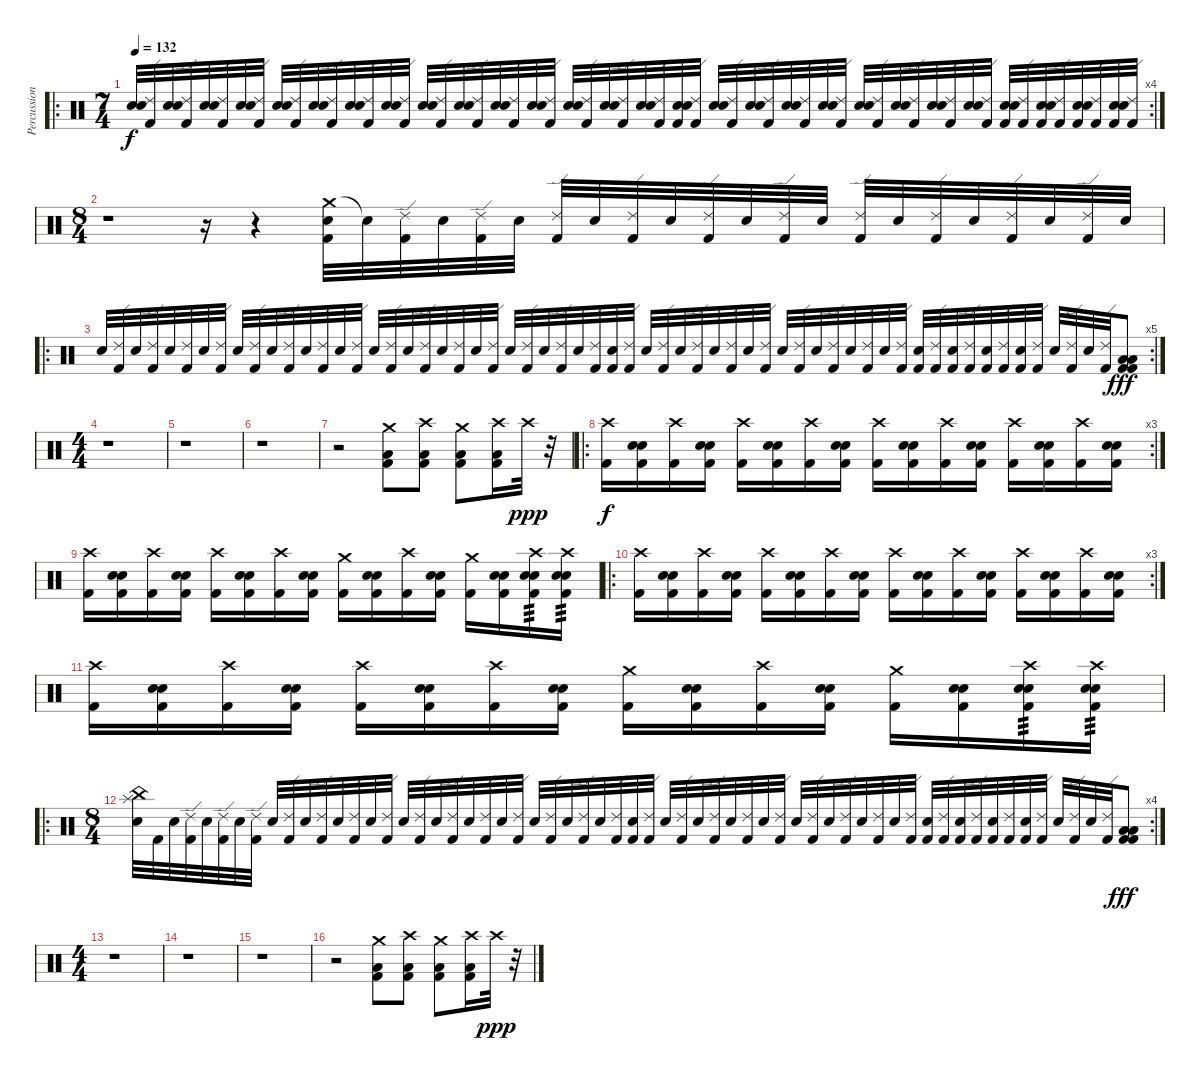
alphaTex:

\track ("Percussion" "Percussion") {instrument percussion}
\staff {score}
\articulation defaults
\ro
\rc 4
\ts (7 4)
\tempo 132
\clef neutral
\ks c
("Electric Snare (hit)" "Snare (hit) 2").32{dy f} ("Ride (edge) 2" "Kick (hit) 2").32 ("Electric Snare (hit)" "Snare (hit) 2").32 ("Ride (edge) 2" "Kick (hit) 2").32 ("Electric Snare (hit)" "Snare (hit) 2").32 ("Ride (edge) 2" "Kick (hit) 2").32 ("Electric Snare (hit)" "Snare (hit) 2").32 ("Ride (edge) 2" "Kick (hit) 2").32 ("Electric Snare (hit)" "Snare (hit) 2").32 ("Ride (edge) 2" "Kick (hit) 2").32 ("Electric Snare (hit)" "Snare (hit) 2").32 ("Ride (edge) 2" "Kick (hit) 2").32 ("Electric Snare (hit)" "Snare (hit) 2").32 ("Ride (edge) 2" "Kick (hit) 2").32 ("Electric Snare (hit)" "Snare (hit) 2").32 ("Ride (edge) 2" "Kick (hit) 2").32 ("Electric Snare (hit)" "Snare (hit) 2").32 ("Ride (edge) 2" "Kick (hit) 2").32 ("Electric Snare (hit)" "Snare (hit) 2").32 ("Ride (edge) 2" "Kick (hit) 2").32 ("Electric Snare (hit)" "Snare (hit) 2").32 ("Ride (edge) 2" "Kick (hit) 2").32 ("Electric Snare (hit)" "Snare (hit) 2").32 ("Ride (edge) 2" "Kick (hit) 2").32 ("Electric Snare (hit)" "Snare (hit) 2").32 ("Ride (edge) 2" "Kick (hit) 2").32 ("Electric Snare (hit)" "Snare (hit) 2").32 ("Ride (edge) 2" "Kick (hit) 2").32 ("Electric Snare (hit)" "Snare (hit) 2").32 ("Ride (edge) 2" "Kick (hit) 2").32 ("Electric Snare (hit)" "Snare (hit) 2" "Kick (hit) 2").32 ("Ride (edge) 2" "Kick (hit) 2").32 ("Electric Snare (hit)" "Snare (hit) 2").32 ("Ride (edge) 2" "Kick (hit) 2").32 ("Electric Snare (hit)" "Snare (hit) 2").32 ("Ride (edge) 2" "Kick (hit) 2").32 ("Electric Snare (hit)" "Snare (hit) 2").32 ("Ride (edge) 2" "Kick (hit) 2").32 ("Electric Snare (hit)" "Snare (hit) 2").32 ("Ride (edge) 2" "Kick (hit) 2").32 ("Electric Snare (hit)" "Snare (hit) 2").32 ("Ride (edge) 2" "Kick (hit) 2").32 ("Electric Snare (hit)" "Snare (hit) 2").32 ("Ride (edge) 2" "Kick (hit) 2").32 ("Electric Snare (hit)" "Snare (hit) 2").32 ("Ride (edge) 2" "Kick (hit) 2").32 ("Electric Snare (hit)" "Snare (hit) 2").32 ("Ride (edge) 2" "Kick (hit) 2").32 ("Electric Snare (hit)" "Snare (hit) 2" "Kick (hit) 2").32 ("Ride (edge) 2" "Kick (hit) 2").32 ("Electric Snare (hit)" "Snare (hit) 2" "Kick (hit) 2").32 ("Ride (edge) 2" "Kick (hit) 2").32 ("Electric Snare (hit)" "Snare (hit) 2" "Kick (hit) 2").32 ("Ride (edge) 2" "Kick (hit) 2").32 ("Electric Snare (hit)" "Snare (hit) 2" "Kick (hit) 2").32 ("Ride (edge) 2" "Kick (hit) 2").32 |
\ts (8 4)
r.1 r.16 r.4 ("Crash medium (hit)" "Electric Snare (hit)" "Kick (hit) 2").32 "Snare (hit)"{t}.32 ("Ride (edge) 2" "Kick (hit) 2").32 "Electric Snare (hit)".32 ("Ride (edge) 2" "Kick (hit) 2").32 "Electric Snare (hit)".32 ("Ride (edge) 2" "Kick (hit) 2").32 "Electric Snare (hit)".32 ("Ride (edge) 2" "Kick (hit) 2").32 "Electric Snare (hit)".32 ("Ride (edge) 2" "Kick (hit) 2").32 "Electric Snare (hit)".32 ("Ride (edge) 2" "Kick (hit) 2").32 "Electric Snare (hit)".32 ("Ride (edge) 2" "Kick (hit) 2").32 "Electric Snare (hit)".32 ("Ride (edge) 2" "Kick (hit) 2").32 "Electric Snare (hit)".32 ("Ride (edge) 2" "Kick (hit) 2").32 "Electric Snare (hit)".32 ("Ride (edge) 2" "Kick (hit) 2").32 "Electric Snare (hit)".32 |
\ro
\rc 5 "Snare (hit) 2".32
("Ride (edge) 2" "Kick (hit) 2").32 "Snare (hit) 2".32 ("Ride (edge) 2" "Kick (hit) 2").32 "Snare (hit) 2".32 ("Ride (edge) 2" "Kick (hit) 2").32 "Snare (hit) 2".32 ("Ride (edge) 2" "Kick (hit) 2").32 "Snare (hit) 2".32 ("Ride (edge) 2" "Kick (hit) 2").32 "Snare (hit) 2".32 ("Ride (edge) 2" "Kick (hit) 2").32 "Snare (hit) 2".32 ("Ride (edge) 2" "Kick (hit) 2").32 "Snare (hit) 2".32 ("Ride (edge) 2" "Kick (hit) 2").32 "Snare (hit) 2".32 ("Ride (edge) 2" "Kick (hit) 2").32 "Snare (hit) 2".32 ("Ride (edge) 2" "Kick (hit) 2").32 "Snare (hit) 2".32 ("Ride (edge) 2" "Kick (hit) 2").32 "Snare (hit) 2".32 ("Ride (edge) 2" "Kick (hit) 2").32 "Snare (hit) 2".32 ("Ride (edge) 2" "Kick (hit) 2").32 "Snare (hit) 2".32 ("Ride (edge) 2" "Kick (hit) 2").32 "Snare (hit) 2".32 ("Ride (edge) 2" "Kick (hit) 2").32 ("Snare (hit) 2" "Kick (hit) 2").32 ("Ride (edge) 2" "Kick (hit) 2").32 "Snare (hit) 2".32 ("Ride (edge) 2" "Kick (hit) 2").32 "Snare (hit) 2".32 ("Ride (edge) 2" "Kick (hit) 2").32 "Snare (hit) 2".32 ("Ride (edge) 2" "Kick (hit) 2").32 "Snare (hit) 2".32 ("Ride (edge) 2" "Kick (hit) 2").32 "Snare (hit) 2".32 ("Ride (edge) 2" "Kick (hit) 2").32 "Snare (hit) 2".32 ("Ride (edge) 2" "Kick (hit) 2").32 "Snare (hit) 2".32 ("Ride (edge) 2" "Kick (hit) 2").32 "Snare (hit) 2".32 ("Ride (edge) 2" "Kick (hit) 2").32 ("Snare (hit) 2" "Kick (hit) 2").32 ("Ride (edge) 2" "Kick (hit) 2").32 ("Snare (hit) 2" "Kick (hit) 2").32 ("Ride (edge) 2" "Kick (hit) 2").32 ("Snare (hit) 2" "Kick (hit) 2").32 ("Ride (edge) 2" "Kick (hit) 2").32 ("Snare (hit) 2" "Kick (hit) 2").32 ("Ride (edge) 2" "Kick (hit) 2").32 "Snare (hit) 2".32 ("Ride (edge) 2" "Kick (hit) 2").32 "Snare (hit) 2".32 ("Ride (edge) 2" "Kick (hit) 2").32 ("Low Floor Tom (hit)" "Low Floor Tom (hit)" "Kick (hit) 2" "Kick (hit) 2").8{dy fff} |
\ts (4 4)
r.1 |
r.1 |
r.1 |
r.2 ("Crash medium (hit)" "Low Floor Tom (hit)" "Kick (hit) 2").8 ("Crash high (hit)" "Low Floor Tom (hit)" "Kick (hit) 2").8 ("Crash medium (hit)" "Low Floor Tom (hit)" "Kick (hit) 2").8 ("Crash high (hit)" "Low Floor Tom (hit)" "Kick (hit) 2").16 "Crash high (hit)".32{dy ppp volume 0} r.32 |
\ro
\rc 3
("Crash high (hit)" "Kick (hit) 2").16{dy f volume 16} ("Electric Snare (hit)" "Snare (hit) 2" "Kick (hit) 2").16 ("Crash high (hit)" "Kick (hit) 2").16 ("Electric Snare (hit)" "Snare (hit) 2" "Kick (hit) 2").16 ("Crash high (hit)" "Kick (hit) 2").16 ("Electric Snare (hit)" "Snare (hit) 2" "Kick (hit) 2").16 ("Crash high (hit)" "Kick (hit) 2").16 ("Electric Snare (hit)" "Snare (hit) 2" "Kick (hit) 2").16 ("Crash high (hit)" "Kick (hit) 2").16 ("Electric Snare (hit)" "Snare (hit) 2" "Kick (hit) 2").16 ("Crash high (hit)" "Kick (hit) 2").16 ("Electric Snare (hit)" "Snare (hit) 2" "Kick (hit) 2").16 ("Crash high (hit)" "Kick (hit) 2").16 ("Electric Snare (hit)" "Snare (hit) 2" "Kick (hit) 2").16 ("Crash high (hit)" "Kick (hit) 2").16 ("Electric Snare (hit)" "Snare (hit) 2" "Kick (hit) 2").16 |
("Crash high (hit)" "Kick (hit) 2").16 ("Electric Snare (hit)" "Snare (hit) 2" "Kick (hit) 2").16 ("Crash high (hit)" "Kick (hit) 2").16 ("Electric Snare (hit)" "Snare (hit) 2" "Kick (hit) 2").16 ("Crash high (hit)" "Kick (hit) 2").16 ("Electric Snare (hit)" "Snare (hit) 2" "Kick (hit) 2").16 ("Crash high (hit)" "Kick (hit) 2").16 ("Electric Snare (hit)" "Snare (hit) 2" "Kick (hit) 2").16 ("Crash medium (hit)" "Kick (hit) 2").16 ("Electric Snare (hit)" "Snare (hit) 2" "Kick (hit) 2").16 ("Crash high (hit)" "Kick (hit) 2").16 ("Electric Snare (hit)" "Snare (hit) 2" "Kick (hit) 2").16 ("Crash medium (hit)" "Kick (hit) 2").16 ("Electric Snare (hit)" "Snare (hit) 2" "Kick (hit) 2").16 ("Crash high (hit)" "Electric Snare (hit)" "Snare (hit) 2" "Kick (hit) 2").16{tp 3} ("Crash high (hit)" "Electric Snare (hit)" "Snare (hit) 2" "Kick (hit) 2").16{tp 3} |
\ro
\rc 3
("Crash high (hit)" "Kick (hit) 2").16{volume 16} ("Electric Snare (hit)" "Snare (hit) 2" "Kick (hit) 2").16 ("Crash high (hit)" "Kick (hit) 2").16 ("Electric Snare (hit)" "Snare (hit) 2" "Kick (hit) 2").16 ("Crash high (hit)" "Kick (hit) 2").16 ("Electric Snare (hit)" "Snare (hit) 2" "Kick (hit) 2").16 ("Crash high (hit)" "Kick (hit) 2").16 ("Electric Snare (hit)" "Snare (hit) 2" "Kick (hit) 2").16 ("Crash high (hit)" "Kick (hit) 2").16 ("Electric Snare (hit)" "Snare (hit) 2" "Kick (hit) 2").16 ("Crash high (hit)" "Kick (hit) 2").16 ("Electric Snare (hit)" "Snare (hit) 2" "Kick (hit) 2").16 ("Crash high (hit)" "Kick (hit) 2").16 ("Electric Snare (hit)" "Snare (hit) 2" "Kick (hit) 2").16 ("Crash high (hit)" "Kick (hit) 2").16 ("Electric Snare (hit)" "Snare (hit) 2" "Kick (hit) 2").16 |
("Crash high (hit)" "Kick (hit) 2").16 ("Electric Snare (hit)" "Snare (hit) 2" "Kick (hit) 2").16 ("Crash high (hit)" "Kick (hit) 2").16 ("Electric Snare (hit)" "Snare (hit) 2" "Kick (hit) 2").16 ("Crash high (hit)" "Kick (hit) 2").16 ("Electric Snare (hit)" "Snare (hit) 2" "Kick (hit) 2").16 ("Crash high (hit)" "Kick (hit) 2").16 ("Electric Snare (hit)" "Snare (hit) 2" "Kick (hit) 2").16 ("Crash medium (hit)" "Kick (hit) 2").16 ("Electric Snare (hit)" "Snare (hit) 2" "Kick (hit) 2").16 ("Crash high (hit)" "Kick (hit) 2").16 ("Electric Snare (hit)" "Snare (hit) 2" "Kick (hit) 2").16 ("Crash medium (hit)" "Kick (hit) 2").16 ("Electric Snare (hit)" "Snare (hit) 2" "Kick (hit) 2").16 ("Crash high (hit)" "Electric Snare (hit)" "Snare (hit) 2" "Kick (hit) 2").16{tp 3} ("Crash high (hit)" "Electric Snare (hit)" "Snare (hit) 2" "Kick (hit) 2").16{tp 3} |
\ro
\rc 4
\ts (8 4)
("Splash (hit)" "China (hit)" "Snare (hit) 2").32 "Kick (hit) 2".32 "Snare (hit) 2".32 ("Ride (edge) 2" "Kick (hit) 2").32 "Snare (hit) 2".32 ("Ride (edge) 2" "Kick (hit) 2").32 "Snare (hit) 2".32 ("Ride (edge) 2" "Kick (hit) 2").32 "Snare (hit) 2".32 ("Ride (edge) 2" "Kick (hit) 2").32 "Snare (hit) 2".32 ("Ride (edge) 2" "Kick (hit) 2").32 "Snare (hit) 2".32 ("Ride (edge) 2" "Kick (hit) 2").32 "Snare (hit) 2".32 ("Ride (edge) 2" "Kick (hit) 2").32 "Snare (hit) 2".32 ("Ride (edge) 2" "Kick (hit) 2").32 "Snare (hit) 2".32 ("Ride (edge) 2" "Kick (hit) 2").32 "Snare (hit) 2".32 ("Ride (edge) 2" "Kick (hit) 2").32 "Snare (hit) 2".32 ("Ride (edge) 2" "Kick (hit) 2").32 "Snare (hit) 2".32 ("Ride (edge) 2" "Kick (hit) 2").32 "Snare (hit) 2".32 ("Ride (edge) 2" "Kick (hit) 2").32 "Snare (hit) 2".32 ("Ride (edge) 2" "Kick (hit) 2").32 ("Snare (hit) 2" "Kick (hit) 2").32 ("Ride (edge) 2" "Kick (hit) 2").32 "Snare (hit) 2".32 ("Ride (edge) 2" "Kick (hit) 2").32 "Snare (hit) 2".32 ("Ride (edge) 2" "Kick (hit) 2").32 "Snare (hit) 2".32 ("Ride (edge) 2" "Kick (hit) 2").32 "Snare (hit) 2".32 ("Ride (edge) 2" "Kick (hit) 2").32 "Snare (hit) 2".32 ("Ride (edge) 2" "Kick (hit) 2").32 "Snare (hit) 2".32 ("Ride (edge) 2" "Kick (hit) 2").32 "Snare (hit) 2".32 ("Ride (edge) 2" "Kick (hit) 2").32 "Snare (hit) 2".32 ("Ride (edge) 2" "Kick (hit) 2").32 ("Snare (hit) 2" "Kick (hit) 2").32 ("Ride (edge) 2" "Kick (hit) 2").32 ("Snare (hit) 2" "Kick (hit) 2").32 ("Ride (edge) 2" "Kick (hit) 2").32 ("Snare (hit) 2" "Kick (hit) 2").32 ("Ride (edge) 2" "Kick (hit) 2").32 ("Snare (hit) 2" "Kick (hit) 2").32 ("Ride (edge) 2" "Kick (hit) 2").32 "Snare (hit) 2".32 ("Ride (edge) 2" "Kick (hit) 2").32 "Snare (hit) 2".32 ("Ride (edge) 2" "Kick (hit) 2").32 ("Low Floor Tom (hit)" "Low Floor Tom (hit)" "Kick (hit) 2" "Kick (hit) 2").8{dy fff} |
\ts (4 4)
r.1 |
r.1 |
r.1 |
r.2 ("Crash medium (hit)" "Low Floor Tom (hit)" "Kick (hit) 2").8 ("Crash high (hit)" "Low Floor Tom (hit)" "Kick (hit) 2").8 ("Crash medium (hit)" "Low Floor Tom (hit)" "Kick (hit) 2").8 ("Crash high (hit)" "Low Floor Tom (hit)" "Kick (hit) 2").16 "Crash high (hit)".32{dy ppp volume 0} r.32
